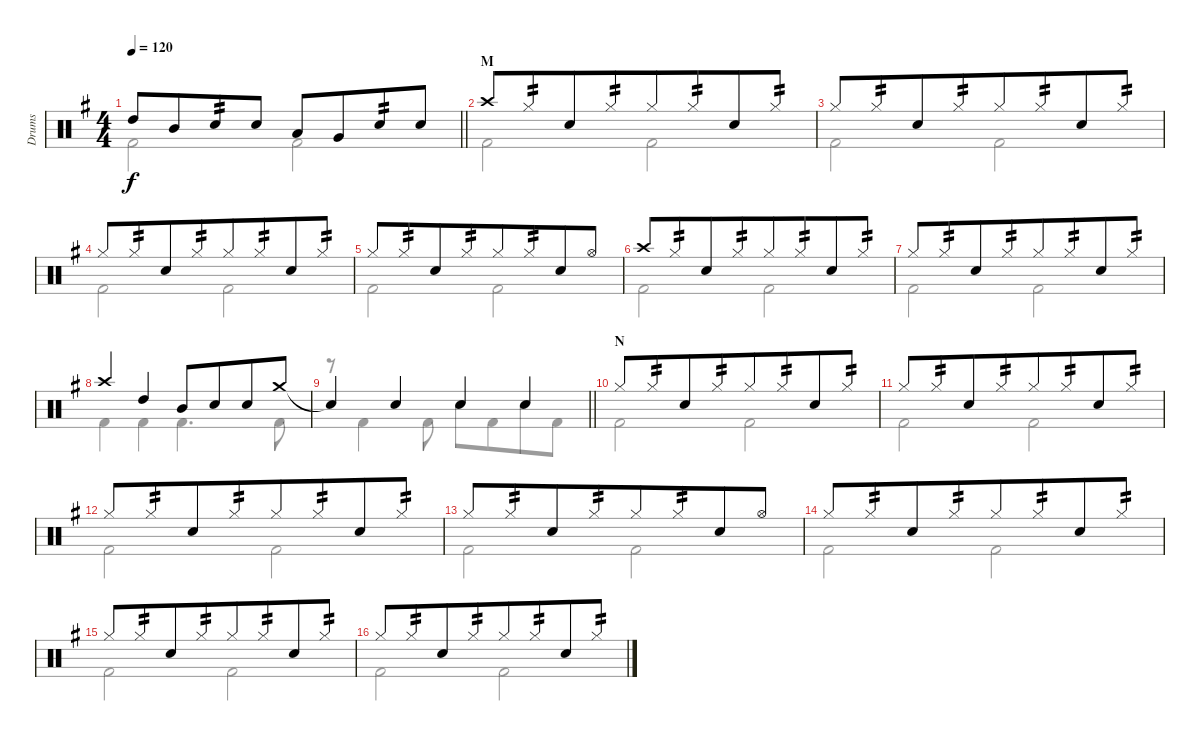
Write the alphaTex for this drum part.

\track ("Drums" "Drums") {instrument percussion}
\staff {score}
\articulation defaults
\voice
\ts (4 4)
\tempo 120
\clef neutral
\barLineRight lightlight
\ks g "High Tom (hit)".8{dy f} "Mid Tom (hit)".8{beam merge} "Electric Snare (hit)".8{tp 2 beam merge} "Snare (hit) 2".8 "Low Tom (hit)".8 "Very Low Tom (hit)".8{beam merge} "Electric Snare (hit)".8{tp 2 beam merge} "Snare (hit) 2".8
|
\section ("" "M")
"Crash high (hit)".8 "Hi-Hat (closed)".8{tp 2 beam merge} "Snare (hit) 2".8 "Hi-Hat (closed)".8{tp 2 beam merge} "Hi-Hat (closed)".8 "Hi-Hat (closed)".8{tp 2 beam merge} "Snare (hit) 2".8 "Hi-Hat (closed)".8{tp 2} |
"Hi-Hat (closed)".8 "Hi-Hat (closed)".8{tp 2 beam merge} "Snare (hit) 2".8 "Hi-Hat (closed)".8{tp 2 beam merge} "Hi-Hat (closed)".8 "Hi-Hat (closed)".8{tp 2 beam merge} "Snare (hit) 2".8 "Hi-Hat (closed)".8{tp 2} |
"Hi-Hat (closed)".8 "Hi-Hat (closed)".8{tp 2 beam merge} "Snare (hit) 2".8 "Hi-Hat (closed)".8{tp 2 beam merge} "Hi-Hat (closed)".8 "Hi-Hat (closed)".8{tp 2 beam merge} "Snare (hit) 2".8 "Hi-Hat (closed)".8{tp 2} |
"Hi-Hat (closed)".8 "Hi-Hat (closed)".8{tp 2 beam merge} "Snare (hit) 2".8 "Hi-Hat (closed)".8{tp 2 beam merge} "Hi-Hat (closed)".8 "Hi-Hat (closed)".8{tp 2 beam merge} "Snare (hit) 2".8 "Hi-Hat (open)".8 |
"Crash high (hit)".8 "Hi-Hat (closed)".8{tp 2 beam merge} "Snare (hit) 2".8 "Hi-Hat (closed)".8{tp 2 beam merge} "Hi-Hat (closed)".8 "Hi-Hat (closed)".8{tp 2 beam merge} "Snare (hit) 2".8 "Hi-Hat (closed)".8{tp 2} |
"Hi-Hat (closed)".8 "Hi-Hat (closed)".8{tp 2 beam merge} "Snare (hit) 2".8 "Hi-Hat (closed)".8{tp 2 beam merge} "Hi-Hat (closed)".8 "Hi-Hat (closed)".8{tp 2 beam merge} "Snare (hit) 2".8 "Hi-Hat (closed)".8{tp 2} |
"Crash high (hit)".4 "High Tom (hit)".4 "Mid Tom (hit)".8{beam merge} "Electric Snare (hit)".8{beam merge} "Snare (hit) 2".8{beam merge} "Crash medium (hit)".8 |
\barLineRight lightlight "Snare (hit)"{t}.4{beam merge} "Snare (hit) 2".4 "Snare (hit) 2".4 "Snare (hit) 2".4
|
\section ("" "N")
"Hi-Hat (closed)".8 "Hi-Hat (closed)".8{tp 2 beam merge} "Snare (hit) 2".8 "Hi-Hat (closed)".8{tp 2 beam merge} "Hi-Hat (closed)".8 "Hi-Hat (closed)".8{tp 2 beam merge} "Snare (hit) 2".8 "Hi-Hat (closed)".8{tp 2} |
"Hi-Hat (closed)".8 "Hi-Hat (closed)".8{tp 2 beam merge} "Snare (hit) 2".8 "Hi-Hat (closed)".8{tp 2 beam merge} "Hi-Hat (closed)".8 "Hi-Hat (closed)".8{tp 2 beam merge} "Snare (hit) 2".8 "Hi-Hat (closed)".8{tp 2} |
"Hi-Hat (closed)".8 "Hi-Hat (closed)".8{tp 2 beam merge} "Snare (hit) 2".8 "Hi-Hat (closed)".8{tp 2 beam merge} "Hi-Hat (closed)".8 "Hi-Hat (closed)".8{tp 2 beam merge} "Snare (hit) 2".8 "Hi-Hat (closed)".8{tp 2} |
"Hi-Hat (closed)".8 "Hi-Hat (closed)".8{tp 2 beam merge} "Snare (hit) 2".8 "Hi-Hat (closed)".8{tp 2 beam merge} "Hi-Hat (closed)".8 "Hi-Hat (closed)".8{tp 2 beam merge} "Snare (hit) 2".8 "Hi-Hat (open)".8 |
"Hi-Hat (closed)".8 "Hi-Hat (closed)".8{tp 2 beam merge} "Snare (hit) 2".8 "Hi-Hat (closed)".8{tp 2 beam merge} "Hi-Hat (closed)".8 "Hi-Hat (closed)".8{tp 2 beam merge} "Snare (hit) 2".8 "Hi-Hat (closed)".8{tp 2} |
"Hi-Hat (closed)".8 "Hi-Hat (closed)".8{tp 2 beam merge} "Snare (hit) 2".8 "Hi-Hat (closed)".8{tp 2 beam merge} "Hi-Hat (closed)".8 "Hi-Hat (closed)".8{tp 2 beam merge} "Snare (hit) 2".8 "Hi-Hat (closed)".8{tp 2} |
"Hi-Hat (closed)".8 "Hi-Hat (closed)".8{tp 2 beam merge} "Snare (hit) 2".8 "Hi-Hat (closed)".8{tp 2 beam merge} "Hi-Hat (closed)".8 "Hi-Hat (closed)".8{tp 2 beam merge} "Snare (hit) 2".8 "Hi-Hat (closed)".8{tp 2}
\voice
\clef neutral
\ottava regular
\simile none
\barLineRight lightlight
\ks g "Kick (hit) 2".2{dy f} "Kick (hit) 2".2
|
"Kick (hit) 2".2 "Kick (hit) 2".2 |
"Kick (hit) 2".2 "Kick (hit) 2".2 |
"Kick (hit) 2".2 "Kick (hit) 2".2 |
"Kick (hit) 2".2 "Kick (hit) 2".2 |
"Kick (hit) 2".2 "Kick (hit) 2".2 |
"Kick (hit) 2".2 "Kick (hit) 2".2 |
"Kick (hit) 2".4 "Kick (hit) 2".4 "Kick (hit) 2".4{d} "Kick (hit) 2".8 |
\barLineRight lightlight
r.8 "Kick (hit) 2".4 "Kick (hit) 2".8 "Electric Snare (hit)".8 "Kick (hit) 2".8{beam merge} "Electric Snare (hit)".8 "Kick (hit) 2".8 |
"Kick (hit) 2".2 "Kick (hit) 2".2 |
"Kick (hit) 2".2 "Kick (hit) 2".2 |
"Kick (hit) 2".2 "Kick (hit) 2".2 |
"Kick (hit) 2".2 "Kick (hit) 2".2 |
"Kick (hit) 2".2 "Kick (hit) 2".2 |
"Kick (hit) 2".2 "Kick (hit) 2".2 |
"Kick (hit) 2".2 "Kick (hit) 2".2
